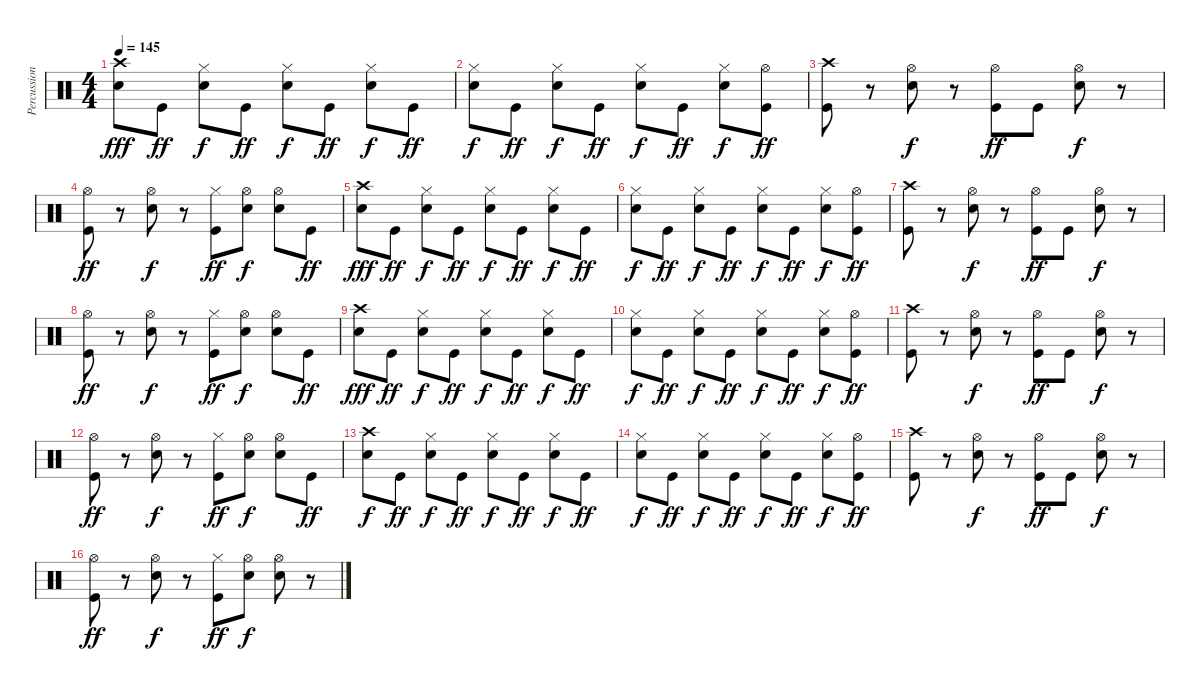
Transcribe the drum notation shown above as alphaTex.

\track ("Percussion" "Percussion") {instrument percussion}
\staff {score}
\articulation defaults
\ts (4 4)
\tempo 145
\clef neutral
\ks c
("Crash high (hit)" "Snare (hit) 2").8{dy fff} "Kick (hit)".8{dy ff} ("Hi-Hat (closed)" "Snare (hit) 2").8{dy f} "Kick (hit)".8{dy ff} ("Hi-Hat (closed)" "Snare (hit) 2").8{dy f} "Kick (hit)".8{dy ff} ("Hi-Hat (closed)" "Snare (hit) 2").8{dy f} "Kick (hit)".8{dy ff} |
("Hi-Hat (closed)" "Snare (hit) 2").8{dy f} "Kick (hit)".8{dy ff} ("Hi-Hat (closed)" "Snare (hit) 2").8{dy f} "Kick (hit)".8{dy ff} ("Hi-Hat (closed)" "Snare (hit) 2").8{dy f} "Kick (hit)".8{dy ff} ("Hi-Hat (closed)" "Snare (hit) 2").8{dy f} ("Hi-Hat (open)" "Kick (hit)").8{dy ff} |
("Crash high (hit)" "Kick (hit)").8 r.8 ("Hi-Hat (open)" "Snare (hit) 2").8{dy f} r.8 ("Hi-Hat (open)" "Kick (hit)").8{dy ff} "Kick (hit)".8 ("Hi-Hat (open)" "Snare (hit) 2").8{dy f} r.8 |
("Hi-Hat (open)" "Kick (hit)").8{dy ff} r.8 ("Hi-Hat (open)" "Snare (hit) 2").8{dy f} r.8 ("Hi-Hat (closed)" "Kick (hit)").8{dy ff} ("Hi-Hat (open)" "Snare (hit) 2").8{dy f} ("Hi-Hat (open)" "Snare (hit) 2").8 "Kick (hit)".8{dy ff} |
("Crash high (hit)" "Snare (hit) 2").8{dy fff} "Kick (hit)".8{dy ff} ("Hi-Hat (closed)" "Snare (hit) 2").8{dy f} "Kick (hit)".8{dy ff} ("Hi-Hat (closed)" "Snare (hit) 2").8{dy f} "Kick (hit)".8{dy ff} ("Hi-Hat (closed)" "Snare (hit) 2").8{dy f} "Kick (hit)".8{dy ff} |
("Hi-Hat (closed)" "Snare (hit) 2").8{dy f} "Kick (hit)".8{dy ff} ("Hi-Hat (closed)" "Snare (hit) 2").8{dy f} "Kick (hit)".8{dy ff} ("Hi-Hat (closed)" "Snare (hit) 2").8{dy f} "Kick (hit)".8{dy ff} ("Hi-Hat (closed)" "Snare (hit) 2").8{dy f} ("Hi-Hat (open)" "Kick (hit)").8{dy ff} |
("Crash high (hit)" "Kick (hit)").8 r.8 ("Hi-Hat (open)" "Snare (hit) 2").8{dy f} r.8 ("Hi-Hat (open)" "Kick (hit)").8{dy ff} "Kick (hit)".8 ("Hi-Hat (open)" "Snare (hit) 2").8{dy f} r.8 |
("Hi-Hat (open)" "Kick (hit)").8{dy ff} r.8 ("Hi-Hat (open)" "Snare (hit) 2").8{dy f} r.8 ("Hi-Hat (closed)" "Kick (hit)").8{dy ff} ("Hi-Hat (open)" "Snare (hit) 2").8{dy f} ("Hi-Hat (open)" "Snare (hit) 2").8 "Kick (hit)".8{dy ff} |
("Crash high (hit)" "Snare (hit) 2").8{dy fff} "Kick (hit)".8{dy ff} ("Hi-Hat (closed)" "Snare (hit) 2").8{dy f} "Kick (hit)".8{dy ff} ("Hi-Hat (closed)" "Snare (hit) 2").8{dy f} "Kick (hit)".8{dy ff} ("Hi-Hat (closed)" "Snare (hit) 2").8{dy f} "Kick (hit)".8{dy ff} |
("Hi-Hat (closed)" "Snare (hit) 2").8{dy f} "Kick (hit)".8{dy ff} ("Hi-Hat (closed)" "Snare (hit) 2").8{dy f} "Kick (hit)".8{dy ff} ("Hi-Hat (closed)" "Snare (hit) 2").8{dy f} "Kick (hit)".8{dy ff} ("Hi-Hat (closed)" "Snare (hit) 2").8{dy f} ("Hi-Hat (open)" "Kick (hit)").8{dy ff} |
("Crash high (hit)" "Kick (hit)").8 r.8 ("Hi-Hat (open)" "Snare (hit) 2").8{dy f} r.8 ("Hi-Hat (open)" "Kick (hit)").8{dy ff} "Kick (hit)".8 ("Hi-Hat (open)" "Snare (hit) 2").8{dy f} r.8 |
("Hi-Hat (open)" "Kick (hit)").8{dy ff} r.8 ("Hi-Hat (open)" "Snare (hit) 2").8{dy f} r.8 ("Hi-Hat (closed)" "Kick (hit)").8{dy ff} ("Hi-Hat (open)" "Snare (hit) 2").8{dy f} ("Hi-Hat (open)" "Snare (hit) 2").8 "Kick (hit)".8{dy ff} |
("Crash high (hit)" "Snare (hit) 2").8{dy f} "Kick (hit)".8{dy ff} ("Hi-Hat (closed)" "Snare (hit) 2").8{dy f} "Kick (hit)".8{dy ff} ("Hi-Hat (closed)" "Snare (hit) 2").8{dy f} "Kick (hit)".8{dy ff} ("Hi-Hat (closed)" "Snare (hit) 2").8{dy f} "Kick (hit)".8{dy ff} |
("Hi-Hat (closed)" "Snare (hit) 2").8{dy f} "Kick (hit)".8{dy ff} ("Hi-Hat (closed)" "Snare (hit) 2").8{dy f} "Kick (hit)".8{dy ff} ("Hi-Hat (closed)" "Snare (hit) 2").8{dy f} "Kick (hit)".8{dy ff} ("Hi-Hat (closed)" "Snare (hit) 2").8{dy f} ("Hi-Hat (open)" "Kick (hit)").8{dy ff} |
("Crash high (hit)" "Kick (hit)").8 r.8 ("Hi-Hat (open)" "Snare (hit) 2").8{dy f} r.8 ("Hi-Hat (open)" "Kick (hit)").8{dy ff} "Kick (hit)".8 ("Hi-Hat (open)" "Snare (hit) 2").8{dy f} r.8 |
("Hi-Hat (open)" "Kick (hit)").8{dy ff} r.8 ("Hi-Hat (open)" "Snare (hit) 2").8{dy f} r.8 ("Hi-Hat (closed)" "Kick (hit)").8{dy ff} ("Hi-Hat (open)" "Snare (hit) 2").8{dy f} ("Hi-Hat (open)" "Snare (hit) 2").8 r.8
